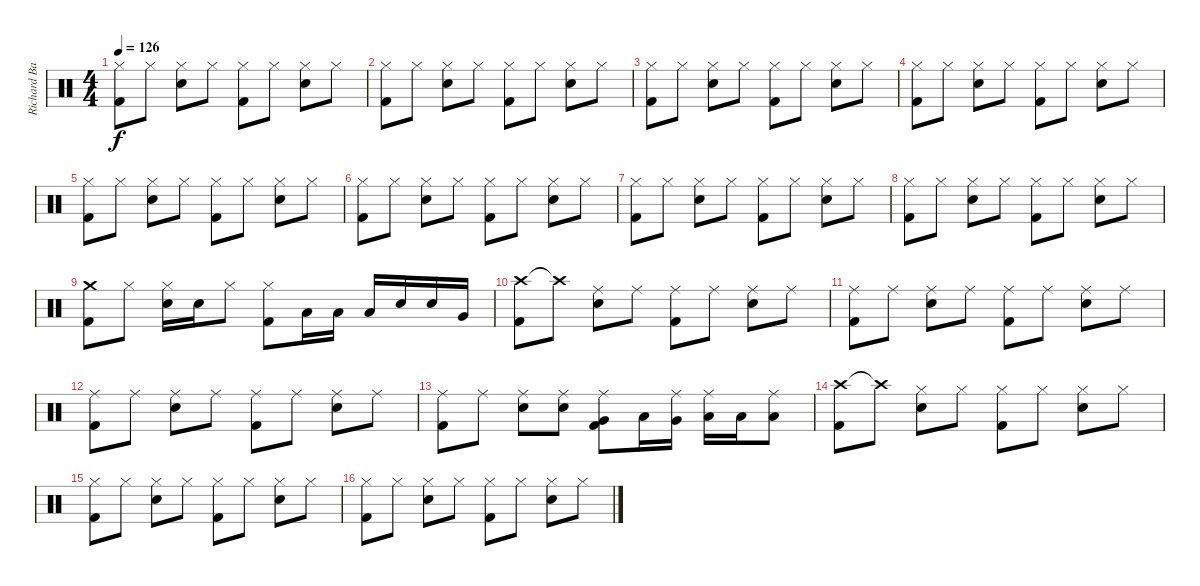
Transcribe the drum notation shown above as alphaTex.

\track ("Richard Bailey" "Richard Ba") {instrument percussion}
\staff {score}
\articulation defaults
\ts (4 4)
\tempo 126
\clef neutral
\ks c
("Hi-Hat (closed)" "Kick (hit) 2").8{dy f} "Hi-Hat (closed)".8 ("Hi-Hat (closed)" "Snare (hit) 2").8 "Hi-Hat (closed)".8 ("Hi-Hat (closed)" "Kick (hit) 2").8 "Hi-Hat (closed)".8 ("Hi-Hat (closed)" "Snare (hit) 2").8 "Hi-Hat (closed)".8 |
("Hi-Hat (closed)" "Kick (hit) 2").8 "Hi-Hat (closed)".8 ("Hi-Hat (closed)" "Snare (hit) 2").8 "Hi-Hat (closed)".8 ("Hi-Hat (closed)" "Kick (hit) 2").8 "Hi-Hat (closed)".8 ("Hi-Hat (closed)" "Snare (hit) 2").8 "Hi-Hat (closed)".8 |
("Hi-Hat (closed)" "Kick (hit) 2").8 "Hi-Hat (closed)".8 ("Hi-Hat (closed)" "Snare (hit) 2").8 "Hi-Hat (closed)".8 ("Hi-Hat (closed)" "Kick (hit) 2").8 "Hi-Hat (closed)".8 ("Hi-Hat (closed)" "Snare (hit) 2").8 "Hi-Hat (closed)".8 |
("Hi-Hat (closed)" "Kick (hit) 2").8 "Hi-Hat (closed)".8 ("Hi-Hat (closed)" "Snare (hit) 2").8 "Hi-Hat (closed)".8 ("Hi-Hat (closed)" "Kick (hit) 2").8 "Hi-Hat (closed)".8 ("Hi-Hat (closed)" "Snare (hit) 2").8 "Hi-Hat (closed)".8 |
("Hi-Hat (closed)" "Kick (hit) 2").8 "Hi-Hat (closed)".8 ("Hi-Hat (closed)" "Snare (hit) 2").8 "Hi-Hat (closed)".8 ("Hi-Hat (closed)" "Kick (hit) 2").8 "Hi-Hat (closed)".8 ("Hi-Hat (closed)" "Snare (hit) 2").8 "Hi-Hat (closed)".8 |
("Hi-Hat (closed)" "Kick (hit) 2").8 "Hi-Hat (closed)".8 ("Hi-Hat (closed)" "Snare (hit) 2").8 "Hi-Hat (closed)".8 ("Hi-Hat (closed)" "Kick (hit) 2").8 "Hi-Hat (closed)".8 ("Hi-Hat (closed)" "Snare (hit) 2").8 "Hi-Hat (closed)".8 |
("Hi-Hat (closed)" "Kick (hit) 2").8 "Hi-Hat (closed)".8 ("Hi-Hat (closed)" "Snare (hit) 2").8 "Hi-Hat (closed)".8 ("Hi-Hat (closed)" "Kick (hit) 2").8 "Hi-Hat (closed)".8 ("Hi-Hat (closed)" "Snare (hit) 2").8 "Hi-Hat (closed)".8 |
("Hi-Hat (closed)" "Kick (hit) 2").8 "Hi-Hat (closed)".8 ("Hi-Hat (closed)" "Snare (hit) 2").8 "Hi-Hat (closed)".8 ("Hi-Hat (closed)" "Kick (hit) 2").8 "Hi-Hat (closed)".8 ("Hi-Hat (closed)" "Snare (hit) 2").8 "Hi-Hat (closed)".8 |
("Crash medium (hit)" "Kick (hit) 2").8 "Hi-Hat (closed)".8 ("Hi-Hat (closed)" "Snare (hit) 2").16 "Snare (hit) 2".16 "Hi-Hat (closed)".8 ("Hi-Hat (closed)" "Kick (hit) 2").8 "Low Tom (hit)".16 "Low Tom (hit)".16 "Low Tom (hit)".16 "Snare (hit) 2".16 "Snare (hit) 2".16 "Very Low Tom (hit)".16 |
("Crash high (hit)" "Kick (hit) 2").8 "Crash high (hit)"{t}.8 ("Ride (middle)" "Snare (hit) 2").8 "Ride (middle)".8 ("Ride (middle)" "Kick (hit) 2").8 "Ride (middle)".8 ("Ride (middle)" "Snare (hit) 2").8 "Ride (middle)".8 |
("Ride (middle)" "Kick (hit) 2").8 "Ride (middle)".8 ("Ride (middle)" "Snare (hit) 2").8 "Ride (middle)".8 ("Ride (middle)" "Kick (hit) 2").8 "Ride (middle)".8 ("Ride (middle)" "Snare (hit) 2").8 "Ride (middle)".8 |
("Ride (middle)" "Kick (hit) 2").8 "Ride (middle)".8 ("Ride (middle)" "Snare (hit) 2").8 "Ride (middle)".8 ("Ride (middle)" "Kick (hit) 2").8 "Ride (middle)".8 ("Ride (middle)" "Snare (hit) 2").8 "Ride (middle)".8 |
("Ride (middle)" "Kick (hit) 2").8 "Ride (middle)".8 ("Ride (middle)" "Snare (hit) 2").8 ("Ride (middle)" "Snare (hit) 2").8 ("Ride (middle)" "Very Low Tom (hit)" "Kick (hit) 2").8 "Low Tom (hit)".16 ("Ride (middle)" "Very Low Tom (hit)").16 ("Ride (middle)" "Low Tom (hit)").16 "Low Tom (hit)".16 ("Ride (middle)" "Low Tom (hit)").8 |
("Crash high (hit)" "Kick (hit) 2").8 "Crash high (hit)"{t}.8 ("Hi-Hat (closed)" "Snare (hit) 2").8 "Hi-Hat (closed)".8 ("Hi-Hat (closed)" "Kick (hit) 2").8 "Hi-Hat (closed)".8 ("Hi-Hat (closed)" "Snare (hit) 2").8 "Hi-Hat (closed)".8 |
("Hi-Hat (closed)" "Kick (hit) 2").8 "Hi-Hat (closed)".8 ("Hi-Hat (closed)" "Snare (hit) 2").8 "Hi-Hat (closed)".8 ("Hi-Hat (closed)" "Kick (hit) 2").8 "Hi-Hat (closed)".8 ("Hi-Hat (closed)" "Snare (hit) 2").8 "Hi-Hat (closed)".8 |
("Hi-Hat (closed)" "Kick (hit) 2").8 "Hi-Hat (closed)".8 ("Hi-Hat (closed)" "Snare (hit) 2").8 "Hi-Hat (closed)".8 ("Hi-Hat (closed)" "Kick (hit) 2").8 "Hi-Hat (closed)".8 ("Hi-Hat (closed)" "Snare (hit) 2").8 "Hi-Hat (closed)".8
